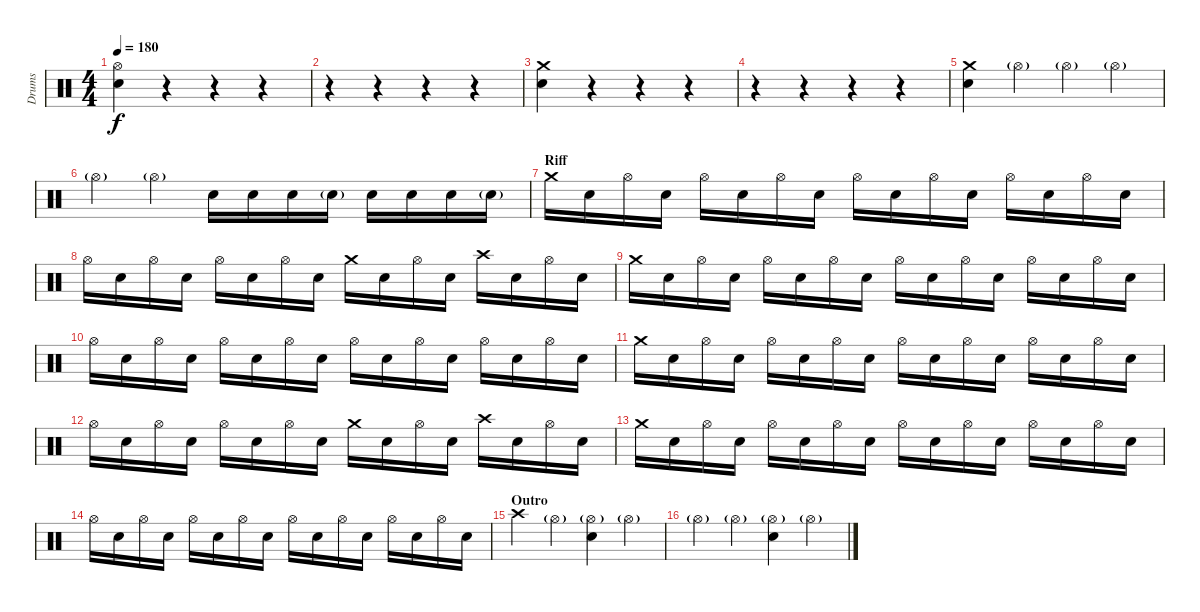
\track ("Drums" "Drums") {instrument percussion}
\staff {score}
\articulation defaults
\ts (4 4)
\tempo 180
\clef neutral
\ks c
("Hi-Hat (open)" "Electric Snare (hit)").4{dy f} r.4 r.4 r.4 |
r.4 r.4 r.4 r.4 |
("Crash medium (hit)" "Electric Snare (hit)").4 r.4 r.4 r.4 |
r.4 r.4 r.4 r.4 |
("Crash medium (hit)" "Electric Snare (hit)").4 "Hi-Hat (open)"{g}.4 "Hi-Hat (open)"{g}.4 "Hi-Hat (open)"{g}.4 |
"Hi-Hat (open)"{g}.4 "Hi-Hat (open)"{g}.4 "Electric Snare (hit)".16 "Electric Snare (hit)".16 "Electric Snare (hit)".16 "Electric Snare (hit)"{g}.16 "Electric Snare (hit)".16 "Electric Snare (hit)".16 "Electric Snare (hit)".16 "Electric Snare (hit)"{g}.16 |
\section ("" "Riff")
"Crash medium (hit)".16 "Electric Snare (hit)".16 "Hi-Hat (open)".16 "Electric Snare (hit)".16 "Hi-Hat (open)".16 "Electric Snare (hit)".16 "Hi-Hat (open)".16 "Electric Snare (hit)".16 "Hi-Hat (open)".16 "Electric Snare (hit)".16 "Hi-Hat (open)".16 "Electric Snare (hit)".16 "Hi-Hat (open)".16 "Electric Snare (hit)".16 "Hi-Hat (open)".16 "Electric Snare (hit)".16 |
"Hi-Hat (open)".16 "Electric Snare (hit)".16 "Hi-Hat (open)".16 "Electric Snare (hit)".16 "Hi-Hat (open)".16 "Electric Snare (hit)".16 "Hi-Hat (open)".16 "Electric Snare (hit)".16 "Crash medium (hit)".16 "Electric Snare (hit)".16 "Hi-Hat (open)".16 "Electric Snare (hit)".16 "Crash high (hit)".16 "Electric Snare (hit)".16 "Hi-Hat (open)".16 "Electric Snare (hit)".16 |
"Crash medium (hit)".16 "Electric Snare (hit)".16 "Hi-Hat (open)".16 "Electric Snare (hit)".16 "Hi-Hat (open)".16 "Electric Snare (hit)".16 "Hi-Hat (open)".16 "Electric Snare (hit)".16 "Hi-Hat (open)".16 "Electric Snare (hit)".16 "Hi-Hat (open)".16 "Electric Snare (hit)".16 "Hi-Hat (open)".16 "Electric Snare (hit)".16 "Hi-Hat (open)".16 "Electric Snare (hit)".16 |
"Hi-Hat (open)".16 "Electric Snare (hit)".16 "Hi-Hat (open)".16 "Electric Snare (hit)".16 "Hi-Hat (open)".16 "Electric Snare (hit)".16 "Hi-Hat (open)".16 "Electric Snare (hit)".16 "Hi-Hat (open)".16 "Electric Snare (hit)".16 "Hi-Hat (open)".16 "Electric Snare (hit)".16 "Hi-Hat (open)".16 "Electric Snare (hit)".16 "Hi-Hat (open)".16 "Electric Snare (hit)".16 |
"Crash medium (hit)".16 "Electric Snare (hit)".16 "Hi-Hat (open)".16 "Electric Snare (hit)".16 "Hi-Hat (open)".16 "Electric Snare (hit)".16 "Hi-Hat (open)".16 "Electric Snare (hit)".16 "Hi-Hat (open)".16 "Electric Snare (hit)".16 "Hi-Hat (open)".16 "Electric Snare (hit)".16 "Hi-Hat (open)".16 "Electric Snare (hit)".16 "Hi-Hat (open)".16 "Electric Snare (hit)".16 |
"Hi-Hat (open)".16 "Electric Snare (hit)".16 "Hi-Hat (open)".16 "Electric Snare (hit)".16 "Hi-Hat (open)".16 "Electric Snare (hit)".16 "Hi-Hat (open)".16 "Electric Snare (hit)".16 "Crash medium (hit)".16 "Electric Snare (hit)".16 "Hi-Hat (open)".16 "Electric Snare (hit)".16 "Crash high (hit)".16 "Electric Snare (hit)".16 "Hi-Hat (open)".16 "Electric Snare (hit)".16 |
"Crash medium (hit)".16 "Electric Snare (hit)".16 "Hi-Hat (open)".16 "Electric Snare (hit)".16 "Hi-Hat (open)".16 "Electric Snare (hit)".16 "Hi-Hat (open)".16 "Electric Snare (hit)".16 "Hi-Hat (open)".16 "Electric Snare (hit)".16 "Hi-Hat (open)".16 "Electric Snare (hit)".16 "Hi-Hat (open)".16 "Electric Snare (hit)".16 "Hi-Hat (open)".16 "Electric Snare (hit)".16 |
"Hi-Hat (open)".16 "Electric Snare (hit)".16 "Hi-Hat (open)".16 "Electric Snare (hit)".16 "Hi-Hat (open)".16 "Electric Snare (hit)".16 "Hi-Hat (open)".16 "Electric Snare (hit)".16 "Hi-Hat (open)".16 "Electric Snare (hit)".16 "Hi-Hat (open)".16 "Electric Snare (hit)".16 "Hi-Hat (open)".16 "Electric Snare (hit)".16 "Hi-Hat (open)".16 "Electric Snare (hit)".16 |
\section ("" "Outro")
"Crash high (hit)".4 "Hi-Hat (open)"{g}.4 ("Hi-Hat (open)"{g} "Electric Snare (hit)").4 "Hi-Hat (open)"{g}.4 |
"Hi-Hat (open)"{g}.4 "Hi-Hat (open)"{g}.4 ("Hi-Hat (open)"{g} "Electric Snare (hit)").4 "Hi-Hat (open)"{g}.4
